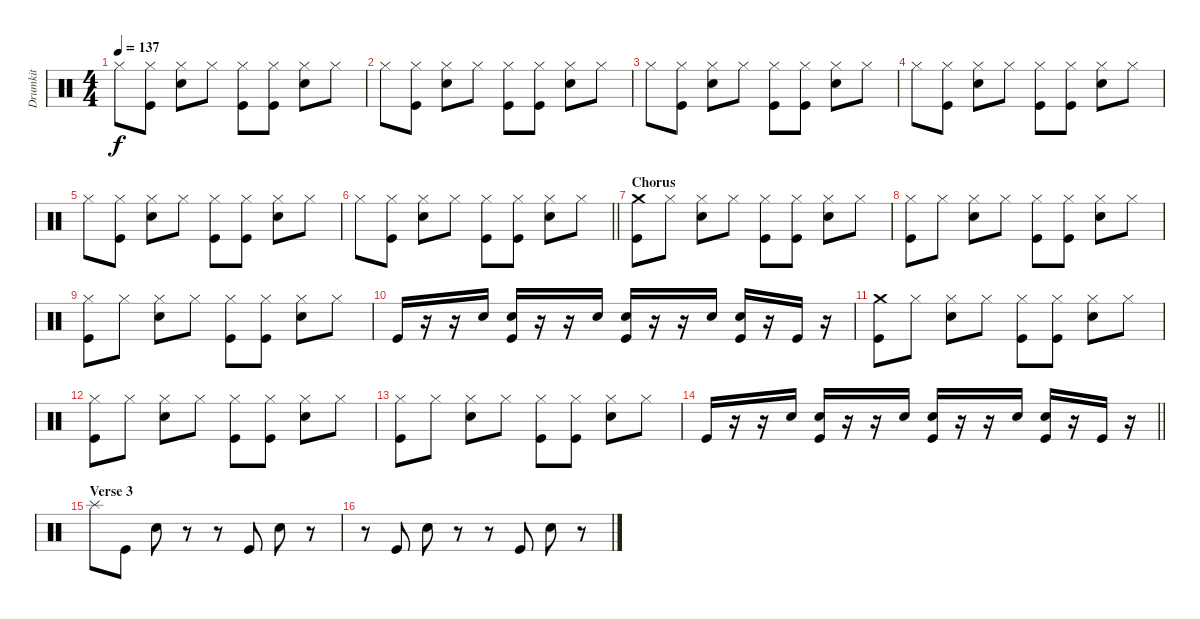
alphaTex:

\track ("Drumkit" "Drumkit") {instrument percussion}
\staff {score}
\articulation defaults
\ts (4 4)
\tempo 137
\clef neutral
\ks c "Hi-Hat (closed)".8{dy f}
("Hi-Hat (closed)" "Kick (hit)").8 ("Hi-Hat (closed)" "Snare (hit) 2").8 "Hi-Hat (closed)".8 ("Hi-Hat (closed)" "Kick (hit)").8 ("Hi-Hat (closed)" "Kick (hit)").8 ("Hi-Hat (closed)" "Snare (hit) 2").8 "Hi-Hat (closed)".8 |
"Hi-Hat (closed)".8 ("Hi-Hat (closed)" "Kick (hit)").8 ("Hi-Hat (closed)" "Snare (hit) 2").8 "Hi-Hat (closed)".8 ("Hi-Hat (closed)" "Kick (hit)").8 ("Hi-Hat (closed)" "Kick (hit)").8 ("Hi-Hat (closed)" "Snare (hit) 2").8 "Hi-Hat (closed)".8 |
"Hi-Hat (closed)".8 ("Hi-Hat (closed)" "Kick (hit)").8 ("Hi-Hat (closed)" "Snare (hit) 2").8 "Hi-Hat (closed)".8 ("Hi-Hat (closed)" "Kick (hit)").8 ("Hi-Hat (closed)" "Kick (hit)").8 ("Hi-Hat (closed)" "Snare (hit) 2").8 "Hi-Hat (closed)".8 |
"Hi-Hat (closed)".8 ("Hi-Hat (closed)" "Kick (hit)").8 ("Hi-Hat (closed)" "Snare (hit) 2").8 "Hi-Hat (closed)".8 ("Hi-Hat (closed)" "Kick (hit)").8 ("Hi-Hat (closed)" "Kick (hit)").8 ("Hi-Hat (closed)" "Snare (hit) 2").8 "Hi-Hat (closed)".8 |
"Hi-Hat (closed)".8 ("Hi-Hat (closed)" "Kick (hit)").8 ("Hi-Hat (closed)" "Snare (hit) 2").8 "Hi-Hat (closed)".8 ("Hi-Hat (closed)" "Kick (hit)").8 ("Hi-Hat (closed)" "Kick (hit)").8 ("Hi-Hat (closed)" "Snare (hit) 2").8 "Hi-Hat (closed)".8 |
\barLineRight lightlight "Hi-Hat (closed)".8
("Hi-Hat (closed)" "Kick (hit)").8 ("Hi-Hat (closed)" "Snare (hit) 2").8 "Hi-Hat (closed)".8 ("Hi-Hat (closed)" "Kick (hit)").8 ("Hi-Hat (closed)" "Kick (hit)").8 ("Hi-Hat (closed)" "Snare (hit) 2").8 "Hi-Hat (closed)".8 |
\section ("" "Chorus")
("Crash medium (hit)" "Kick (hit)").8 "Hi-Hat (closed)".8 ("Hi-Hat (closed)" "Snare (hit) 2").8 "Hi-Hat (closed)".8 ("Hi-Hat (closed)" "Kick (hit)").8 ("Hi-Hat (closed)" "Kick (hit)").8 ("Hi-Hat (closed)" "Snare (hit) 2").8 "Hi-Hat (closed)".8 |
("Hi-Hat (closed)" "Kick (hit)").8 "Hi-Hat (closed)".8 ("Hi-Hat (closed)" "Snare (hit) 2").8 "Hi-Hat (closed)".8 ("Hi-Hat (closed)" "Kick (hit)").8 ("Hi-Hat (closed)" "Kick (hit)").8 ("Hi-Hat (closed)" "Snare (hit) 2").8 "Hi-Hat (closed)".8 |
("Hi-Hat (closed)" "Kick (hit)").8 "Hi-Hat (closed)".8 ("Hi-Hat (closed)" "Snare (hit) 2").8 "Hi-Hat (closed)".8 ("Hi-Hat (closed)" "Kick (hit)").8 ("Hi-Hat (closed)" "Kick (hit)").8 ("Hi-Hat (closed)" "Snare (hit) 2").8 "Hi-Hat (closed)".8 |
"Kick (hit)".16 r.16 r.16 "Snare (hit) 2".16 ("Snare (hit) 2" "Kick (hit)").16 r.16 r.16 "Snare (hit) 2".16 ("Snare (hit) 2" "Kick (hit)").16 r.16 r.16 "Snare (hit) 2".16 ("Snare (hit) 2" "Kick (hit)").16 r.16 "Kick (hit)".16 r.16 |
("Crash medium (hit)" "Kick (hit)").8 "Hi-Hat (closed)".8 ("Hi-Hat (closed)" "Snare (hit) 2").8 "Hi-Hat (closed)".8 ("Hi-Hat (closed)" "Kick (hit)").8 ("Hi-Hat (closed)" "Kick (hit)").8 ("Hi-Hat (closed)" "Snare (hit) 2").8 "Hi-Hat (closed)".8 |
("Hi-Hat (closed)" "Kick (hit)").8 "Hi-Hat (closed)".8 ("Hi-Hat (closed)" "Snare (hit) 2").8 "Hi-Hat (closed)".8 ("Hi-Hat (closed)" "Kick (hit)").8 ("Hi-Hat (closed)" "Kick (hit)").8 ("Hi-Hat (closed)" "Snare (hit) 2").8 "Hi-Hat (closed)".8 |
("Hi-Hat (closed)" "Kick (hit)").8 "Hi-Hat (closed)".8 ("Hi-Hat (closed)" "Snare (hit) 2").8 "Hi-Hat (closed)".8 ("Hi-Hat (closed)" "Kick (hit)").8 ("Hi-Hat (closed)" "Kick (hit)").8 ("Hi-Hat (closed)" "Snare (hit) 2").8 "Hi-Hat (closed)".8 |
\barLineRight lightlight "Kick (hit)".16
r.16 r.16 "Snare (hit) 2".16 ("Snare (hit) 2" "Kick (hit)").16 r.16 r.16 "Snare (hit) 2".16 ("Snare (hit) 2" "Kick (hit)").16 r.16 r.16 "Snare (hit) 2".16 ("Snare (hit) 2" "Kick (hit)").16 r.16 "Kick (hit)".16 r.16 |
\section ("" "Verse 3")
"Splash (hit)".8 "Kick (hit)".8 "Snare (hit) 2".8 r.8 r.8 "Kick (hit)".8 "Snare (hit) 2".8 r.8 |
r.8 "Kick (hit)".8 "Snare (hit) 2".8 r.8 r.8 "Kick (hit)".8 "Snare (hit) 2".8 r.8
